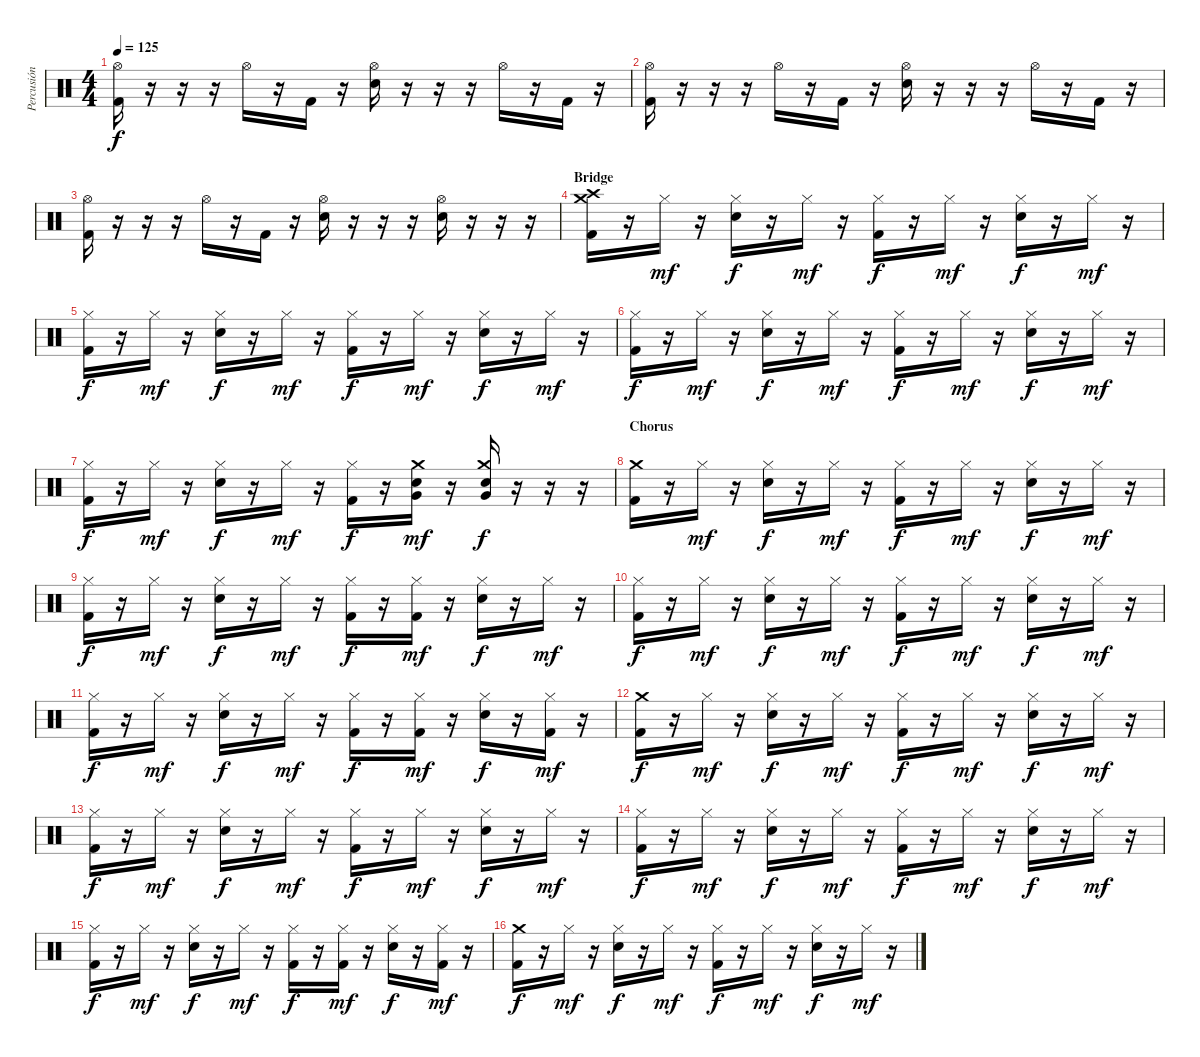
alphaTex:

\track ("Percusión" "Percusión") {instrument percussion}
\staff {score}
\articulation defaults
\ts (4 4)
\tempo 125
\clef neutral
\ks c
("Hi-Hat (open)" "Kick (hit) 2").16{dy f} r.16 r.16 r.16 "Hi-Hat (open)".16 r.16 "Kick (hit) 2".16 r.16 ("Hi-Hat (open)" "Electric Snare (hit)").16 r.16 r.16 r.16 "Hi-Hat (open)".16 r.16 "Kick (hit) 2".16 r.16 |
("Hi-Hat (open)" "Kick (hit) 2").16 r.16 r.16 r.16 "Hi-Hat (open)".16 r.16 "Kick (hit) 2".16 r.16 ("Hi-Hat (open)" "Electric Snare (hit)").16 r.16 r.16 r.16 "Hi-Hat (open)".16 r.16 "Kick (hit) 2".16 r.16 |
("Hi-Hat (open)" "Kick (hit) 2").16 r.16 r.16 r.16 "Hi-Hat (open)".16 r.16 "Kick (hit) 2".16 r.16 ("Hi-Hat (open)" "Electric Snare (hit)").16 r.16 r.16 r.16 ("Hi-Hat (open)" "Electric Snare (hit)").16 r.16 r.16 r.16 |
\section ("" "Bridge")
("Crash medium (hit)" "Crash high (hit)" "Kick (hit) 2").16 r.16 "Hi-Hat (closed)".16{dy mf} r.16 ("Hi-Hat (closed)" "Electric Snare (hit)").16{dy f} r.16 "Hi-Hat (closed)".16{dy mf} r.16 ("Hi-Hat (closed)" "Kick (hit) 2").16{dy f} r.16 "Hi-Hat (closed)".16{dy mf} r.16 ("Hi-Hat (closed)" "Electric Snare (hit)").16{dy f} r.16 "Hi-Hat (closed)".16{dy mf} r.16 |
("Hi-Hat (closed)" "Kick (hit) 2").16{dy f} r.16 "Hi-Hat (closed)".16{dy mf} r.16 ("Hi-Hat (closed)" "Electric Snare (hit)").16{dy f} r.16 "Hi-Hat (closed)".16{dy mf} r.16 ("Hi-Hat (closed)" "Kick (hit) 2").16{dy f} r.16 "Hi-Hat (closed)".16{dy mf} r.16 ("Hi-Hat (closed)" "Electric Snare (hit)").16{dy f} r.16 "Hi-Hat (closed)".16{dy mf} r.16 |
("Hi-Hat (closed)" "Kick (hit) 2").16{dy f} r.16 "Hi-Hat (closed)".16{dy mf} r.16 ("Hi-Hat (closed)" "Electric Snare (hit)").16{dy f} r.16 "Hi-Hat (closed)".16{dy mf} r.16 ("Hi-Hat (closed)" "Kick (hit) 2").16{dy f} r.16 "Hi-Hat (closed)".16{dy mf} r.16 ("Hi-Hat (closed)" "Electric Snare (hit)").16{dy f} r.16 "Hi-Hat (closed)".16{dy mf} r.16 |
("Hi-Hat (closed)" "Kick (hit) 2").16{dy f} r.16 "Hi-Hat (closed)".16{dy mf} r.16 ("Hi-Hat (closed)" "Electric Snare (hit)").16{dy f} r.16 "Hi-Hat (closed)".16{dy mf} r.16 ("Hi-Hat (closed)" "Kick (hit) 2").16{dy f} r.16 ("Crash medium (hit)" "Very Low Tom (hit)" "Electric Snare (hit)").16{dy mf} r.16 ("Crash medium (hit)" "Very Low Tom (hit)" "Electric Snare (hit)").16{dy f} r.16 r.16 r.16 |
\section ("" "Chorus ")
("Crash medium (hit)" "Kick (hit) 2").16 r.16 "Hi-Hat (closed)".16{dy mf} r.16 ("Hi-Hat (closed)" "Electric Snare (hit)").16{dy f} r.16 "Hi-Hat (closed)".16{dy mf} r.16 ("Hi-Hat (closed)" "Kick (hit) 2").16{dy f} r.16 "Hi-Hat (closed)".16{dy mf} r.16 ("Hi-Hat (closed)" "Electric Snare (hit)").16{dy f} r.16 "Hi-Hat (closed)".16{dy mf} r.16 |
("Hi-Hat (closed)" "Kick (hit) 2").16{dy f} r.16 "Hi-Hat (closed)".16{dy mf} r.16 ("Hi-Hat (closed)" "Electric Snare (hit)").16{dy f} r.16 "Hi-Hat (closed)".16{dy mf} r.16 ("Hi-Hat (closed)" "Kick (hit) 2").16{dy f} r.16 ("Hi-Hat (closed)" "Kick (hit) 2").16{dy mf} r.16 ("Hi-Hat (closed)" "Electric Snare (hit)").16{dy f} r.16 "Hi-Hat (closed)".16{dy mf} r.16 |
("Hi-Hat (closed)" "Kick (hit) 2").16{dy f} r.16 "Hi-Hat (closed)".16{dy mf} r.16 ("Hi-Hat (closed)" "Electric Snare (hit)").16{dy f} r.16 "Hi-Hat (closed)".16{dy mf} r.16 ("Hi-Hat (closed)" "Kick (hit) 2").16{dy f} r.16 "Hi-Hat (closed)".16{dy mf} r.16 ("Hi-Hat (closed)" "Electric Snare (hit)").16{dy f} r.16 "Hi-Hat (closed)".16{dy mf} r.16 |
("Hi-Hat (closed)" "Kick (hit) 2").16{dy f} r.16 "Hi-Hat (closed)".16{dy mf} r.16 ("Hi-Hat (closed)" "Electric Snare (hit)").16{dy f} r.16 "Hi-Hat (closed)".16{dy mf} r.16 ("Hi-Hat (closed)" "Kick (hit) 2").16{dy f} r.16 ("Hi-Hat (closed)" "Kick (hit) 2").16{dy mf} r.16 ("Hi-Hat (closed)" "Electric Snare (hit)").16{dy f} r.16 ("Hi-Hat (closed)" "Kick (hit) 2").16{dy mf} r.16 |
("Crash medium (hit)" "Kick (hit) 2").16{dy f} r.16 "Hi-Hat (closed)".16{dy mf} r.16 ("Hi-Hat (closed)" "Electric Snare (hit)").16{dy f} r.16 "Hi-Hat (closed)".16{dy mf} r.16 ("Hi-Hat (closed)" "Kick (hit) 2").16{dy f} r.16 "Hi-Hat (closed)".16{dy mf} r.16 ("Hi-Hat (closed)" "Electric Snare (hit)").16{dy f} r.16 "Hi-Hat (closed)".16{dy mf} r.16 |
("Hi-Hat (closed)" "Kick (hit) 2").16{dy f} r.16 "Hi-Hat (closed)".16{dy mf} r.16 ("Hi-Hat (closed)" "Electric Snare (hit)").16{dy f} r.16 "Hi-Hat (closed)".16{dy mf} r.16 ("Hi-Hat (closed)" "Kick (hit) 2").16{dy f} r.16 "Hi-Hat (closed)".16{dy mf} r.16 ("Hi-Hat (closed)" "Electric Snare (hit)").16{dy f} r.16 "Hi-Hat (closed)".16{dy mf} r.16 |
("Hi-Hat (closed)" "Kick (hit) 2").16{dy f} r.16 "Hi-Hat (closed)".16{dy mf} r.16 ("Hi-Hat (closed)" "Electric Snare (hit)").16{dy f} r.16 "Hi-Hat (closed)".16{dy mf} r.16 ("Hi-Hat (closed)" "Kick (hit) 2").16{dy f} r.16 "Hi-Hat (closed)".16{dy mf} r.16 ("Hi-Hat (closed)" "Electric Snare (hit)").16{dy f} r.16 "Hi-Hat (closed)".16{dy mf} r.16 |
("Hi-Hat (closed)" "Kick (hit) 2").16{dy f} r.16 "Hi-Hat (closed)".16{dy mf} r.16 ("Hi-Hat (closed)" "Electric Snare (hit)").16{dy f} r.16 "Hi-Hat (closed)".16{dy mf} r.16 ("Hi-Hat (closed)" "Kick (hit) 2").16{dy f} r.16 ("Hi-Hat (closed)" "Kick (hit) 2").16{dy mf} r.16 ("Hi-Hat (closed)" "Electric Snare (hit)").16{dy f} r.16 ("Hi-Hat (closed)" "Kick (hit) 2").16{dy mf} r.16 |
("Crash medium (hit)" "Kick (hit) 2").16{dy f} r.16 "Hi-Hat (closed)".16{dy mf} r.16 ("Hi-Hat (closed)" "Electric Snare (hit)").16{dy f} r.16 "Hi-Hat (closed)".16{dy mf} r.16 ("Hi-Hat (closed)" "Kick (hit) 2").16{dy f} r.16 "Hi-Hat (closed)".16{dy mf} r.16 ("Hi-Hat (closed)" "Electric Snare (hit)").16{dy f} r.16 "Hi-Hat (closed)".16{dy mf} r.16
